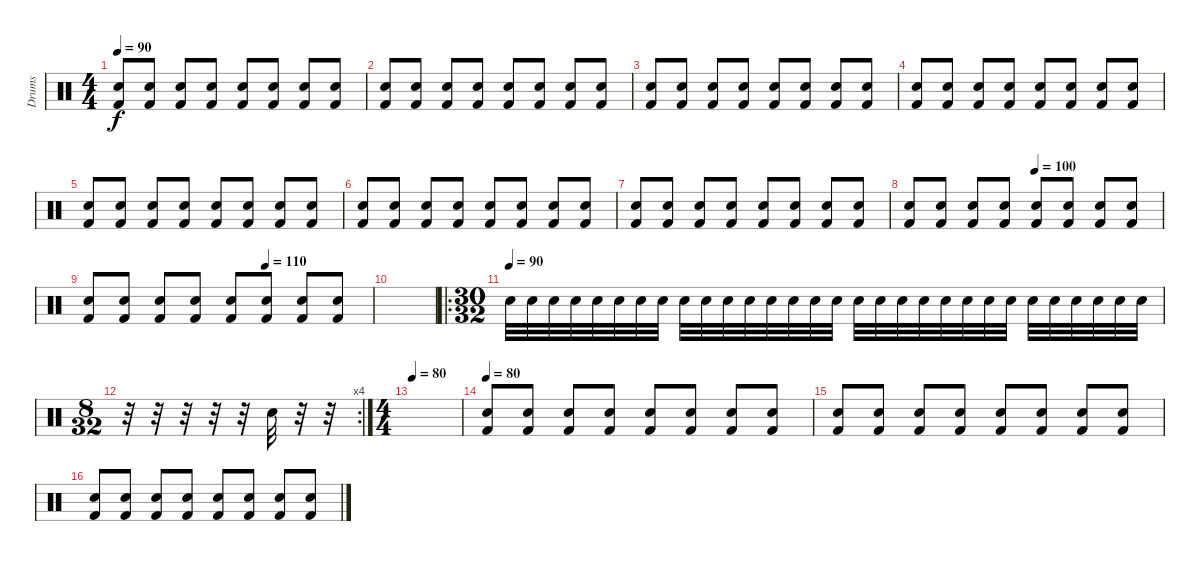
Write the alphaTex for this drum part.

\track ("Drums" "Drums") {instrument percussion}
\staff {score}
\articulation defaults
\ts (4 4)
\tempo 90
\clef neutral
\ks c
("Kick (hit) 2" "Snare (hit) 2").8{dy f} ("Kick (hit) 2" "Snare (hit) 2").8 ("Kick (hit) 2" "Snare (hit) 2").8 ("Kick (hit) 2" "Snare (hit) 2").8 ("Kick (hit) 2" "Snare (hit) 2").8 ("Kick (hit) 2" "Snare (hit) 2").8 ("Kick (hit) 2" "Snare (hit) 2").8 ("Kick (hit) 2" "Snare (hit) 2").8 |
("Kick (hit) 2" "Snare (hit) 2").8 ("Kick (hit) 2" "Snare (hit) 2").8 ("Kick (hit) 2" "Snare (hit) 2").8 ("Kick (hit) 2" "Snare (hit) 2").8 ("Kick (hit) 2" "Snare (hit) 2").8 ("Kick (hit) 2" "Snare (hit) 2").8 ("Kick (hit) 2" "Snare (hit) 2").8 ("Kick (hit) 2" "Snare (hit) 2").8 |
("Kick (hit) 2" "Snare (hit) 2").8 ("Kick (hit) 2" "Snare (hit) 2").8 ("Kick (hit) 2" "Snare (hit) 2").8 ("Kick (hit) 2" "Snare (hit) 2").8 ("Kick (hit) 2" "Snare (hit) 2").8 ("Kick (hit) 2" "Snare (hit) 2").8 ("Kick (hit) 2" "Snare (hit) 2").8 ("Kick (hit) 2" "Snare (hit) 2").8 |
("Kick (hit) 2" "Snare (hit) 2").8 ("Kick (hit) 2" "Snare (hit) 2").8 ("Kick (hit) 2" "Snare (hit) 2").8 ("Kick (hit) 2" "Snare (hit) 2").8 ("Kick (hit) 2" "Snare (hit) 2").8 ("Kick (hit) 2" "Snare (hit) 2").8 ("Kick (hit) 2" "Snare (hit) 2").8 ("Kick (hit) 2" "Snare (hit) 2").8 |
("Kick (hit) 2" "Snare (hit) 2").8 ("Kick (hit) 2" "Snare (hit) 2").8 ("Kick (hit) 2" "Snare (hit) 2").8 ("Kick (hit) 2" "Snare (hit) 2").8 ("Kick (hit) 2" "Snare (hit) 2").8 ("Kick (hit) 2" "Snare (hit) 2").8 ("Kick (hit) 2" "Snare (hit) 2").8 ("Kick (hit) 2" "Snare (hit) 2").8 |
("Kick (hit) 2" "Snare (hit) 2").8 ("Kick (hit) 2" "Snare (hit) 2").8 ("Kick (hit) 2" "Snare (hit) 2").8 ("Kick (hit) 2" "Snare (hit) 2").8 ("Kick (hit) 2" "Snare (hit) 2").8 ("Kick (hit) 2" "Snare (hit) 2").8 ("Kick (hit) 2" "Snare (hit) 2").8 ("Kick (hit) 2" "Snare (hit) 2").8 |
("Kick (hit) 2" "Snare (hit) 2").8 ("Kick (hit) 2" "Snare (hit) 2").8 ("Kick (hit) 2" "Snare (hit) 2").8 ("Kick (hit) 2" "Snare (hit) 2").8 ("Kick (hit) 2" "Snare (hit) 2").8 ("Kick (hit) 2" "Snare (hit) 2").8 ("Kick (hit) 2" "Snare (hit) 2").8 ("Kick (hit) 2" "Snare (hit) 2").8 |
\tempo (100 0.5)
("Kick (hit) 2" "Snare (hit) 2").8 ("Kick (hit) 2" "Snare (hit) 2").8 ("Kick (hit) 2" "Snare (hit) 2").8 ("Kick (hit) 2" "Snare (hit) 2").8 ("Kick (hit) 2" "Snare (hit) 2").8 ("Kick (hit) 2" "Snare (hit) 2").8 ("Kick (hit) 2" "Snare (hit) 2").8 ("Kick (hit) 2" "Snare (hit) 2").8 |
\tempo (110 0.625)
("Kick (hit) 2" "Snare (hit) 2").8 ("Kick (hit) 2" "Snare (hit) 2").8 ("Kick (hit) 2" "Snare (hit) 2").8 ("Kick (hit) 2" "Snare (hit) 2").8 ("Kick (hit) 2" "Snare (hit) 2").8 ("Kick (hit) 2" "Snare (hit) 2").8 ("Kick (hit) 2" "Snare (hit) 2").8 ("Kick (hit) 2" "Snare (hit) 2").8 |
|
\ro
\ts (30 32)
\tempo (90)
"Snare (hit) 2".32 "Snare (hit) 2".32 "Snare (hit) 2".32 "Snare (hit) 2".32 "Snare (hit) 2".32 "Snare (hit) 2".32 "Snare (hit) 2".32 "Snare (hit) 2".32 "Snare (hit) 2".32 "Snare (hit) 2".32 "Snare (hit) 2".32 "Snare (hit) 2".32 "Snare (hit) 2".32 "Snare (hit) 2".32 "Snare (hit) 2".32 "Snare (hit) 2".32 "Snare (hit) 2".32 "Snare (hit) 2".32 "Snare (hit) 2".32 "Snare (hit) 2".32 "Snare (hit) 2".32 "Snare (hit) 2".32 "Snare (hit) 2".32 "Snare (hit) 2".32 "Snare (hit) 2".32 "Snare (hit) 2".32 "Snare (hit) 2".32 "Snare (hit) 2".32 "Snare (hit) 2".32 "Snare (hit) 2".32 |
\rc 4
\ts (8 32)
r.32 r.32 r.32 r.32 r.32 "Snare (hit) 2".32 r.32 r.32 |
\ts (4 4)
\tempo 80
|
\tempo 80
("Kick (hit) 2" "Snare (hit) 2").8 ("Kick (hit) 2" "Snare (hit) 2").8 ("Kick (hit) 2" "Snare (hit) 2").8 ("Kick (hit) 2" "Snare (hit) 2").8 ("Kick (hit) 2" "Snare (hit) 2").8 ("Kick (hit) 2" "Snare (hit) 2").8 ("Kick (hit) 2" "Snare (hit) 2").8 ("Kick (hit) 2" "Snare (hit) 2").8 |
("Kick (hit) 2" "Snare (hit) 2").8 ("Kick (hit) 2" "Snare (hit) 2").8 ("Kick (hit) 2" "Snare (hit) 2").8 ("Kick (hit) 2" "Snare (hit) 2").8 ("Kick (hit) 2" "Snare (hit) 2").8 ("Kick (hit) 2" "Snare (hit) 2").8 ("Kick (hit) 2" "Snare (hit) 2").8 ("Kick (hit) 2" "Snare (hit) 2").8 |
("Kick (hit) 2" "Snare (hit) 2").8 ("Kick (hit) 2" "Snare (hit) 2").8 ("Kick (hit) 2" "Snare (hit) 2").8 ("Kick (hit) 2" "Snare (hit) 2").8 ("Kick (hit) 2" "Snare (hit) 2").8 ("Kick (hit) 2" "Snare (hit) 2").8 ("Kick (hit) 2" "Snare (hit) 2").8 ("Kick (hit) 2" "Snare (hit) 2").8
